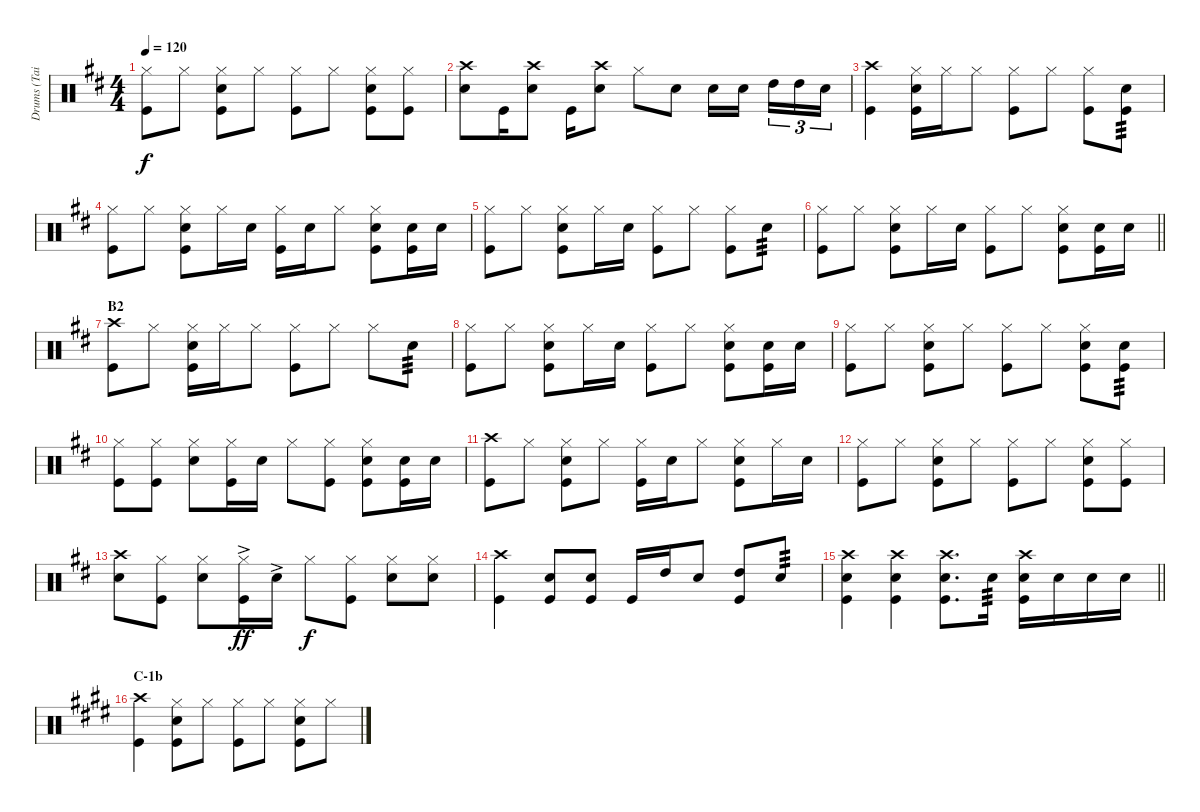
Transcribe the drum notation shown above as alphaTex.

\track ("Drums (Tainaka Ritsu)" "Drums (Tai") {instrument percussion}
\staff {score}
\articulation defaults
\ts (4 4)
\tempo 120
\clef neutral
\ks d
("Hi-Hat (closed)" "Kick (hit)").8{dy f} "Hi-Hat (closed)".8 ("Hi-Hat (closed)" "Snare (hit) 2" "Kick (hit)").8 "Hi-Hat (closed)".8 ("Hi-Hat (closed)" "Kick (hit)").8 "Hi-Hat (closed)".8 ("Hi-Hat (closed)" "Snare (hit) 2" "Kick (hit)").8 ("Hi-Hat (closed)" "Kick (hit)").8 |
("Crash high (hit)" "Snare (hit) 2").8 "Kick (hit)".16 ("Crash high (hit)" "Snare (hit) 2").8 "Kick (hit)".16 ("Crash high (hit)" "Snare (hit) 2").8 "Hi-Hat (closed)".8 "Snare (hit) 2".8 "Snare (hit) 2".16 "Snare (hit) 2".16{beam splitsecondary} "High Tom (hit)".16{tu (3 2)} "High Tom (hit)".16{tu (3 2)} "Snare (hit) 2".16{tu (3 2)} |
("Crash high (hit)" "Kick (hit)").4 ("Hi-Hat (closed)" "Snare (hit) 2" "Kick (hit)").16 "Hi-Hat (closed)".16 "Hi-Hat (closed)".8 ("Hi-Hat (closed)" "Kick (hit)").8 "Hi-Hat (closed)".8 ("Hi-Hat (closed)" "Kick (hit)").8 ("Snare (hit) 2" "Kick (hit)").8{tp 3} |
("Hi-Hat (closed)" "Kick (hit)").8 "Hi-Hat (closed)".8 ("Hi-Hat (closed)" "Snare (hit) 2" "Kick (hit)").8 "Hi-Hat (closed)".16 "Snare (hit) 2".16 ("Hi-Hat (closed)" "Kick (hit)").16 "Snare (hit) 2".16 "Hi-Hat (closed)".8 ("Hi-Hat (closed)" "Snare (hit) 2" "Kick (hit)").8 ("Snare (hit) 2" "Kick (hit)").16 "Snare (hit) 2".16 |
("Hi-Hat (closed)" "Kick (hit)").8 "Hi-Hat (closed)".8 ("Hi-Hat (closed)" "Snare (hit) 2" "Kick (hit)").8 "Hi-Hat (closed)".16 "Snare (hit) 2".16 ("Hi-Hat (closed)" "Kick (hit)").8 "Hi-Hat (closed)".8 ("Hi-Hat (closed)" "Kick (hit)").8 "Snare (hit) 2".8{tp 3} |
\barLineRight lightlight
("Hi-Hat (closed)" "Kick (hit)").8 "Hi-Hat (closed)".8 ("Hi-Hat (closed)" "Snare (hit) 2" "Kick (hit)").8 "Hi-Hat (closed)".16 "Snare (hit) 2".16 ("Hi-Hat (closed)" "Kick (hit)").8 "Hi-Hat (closed)".8 ("Hi-Hat (closed)" "Snare (hit) 2" "Kick (hit)").8 ("Snare (hit) 2" "Kick (hit)").16 "Snare (hit) 2".16 |
\section ("" "B2")
("Crash high (hit)" "Kick (hit)").8 "Hi-Hat (closed)".8 ("Hi-Hat (closed)" "Snare (hit) 2" "Kick (hit)").16 "Hi-Hat (closed)".16 "Hi-Hat (closed)".8 ("Hi-Hat (closed)" "Kick (hit)").8 "Hi-Hat (closed)".8 "Hi-Hat (closed)".8 "Snare (hit) 2".8{tp 3} |
("Hi-Hat (closed)" "Kick (hit)").8 "Hi-Hat (closed)".8 ("Hi-Hat (closed)" "Snare (hit) 2" "Kick (hit)").8 "Hi-Hat (closed)".16 "Snare (hit) 2".16 ("Hi-Hat (closed)" "Kick (hit)").8 "Hi-Hat (closed)".8 ("Hi-Hat (closed)" "Snare (hit) 2" "Kick (hit)").8 ("Snare (hit) 2" "Kick (hit)").16 "Snare (hit) 2".16 |
("Hi-Hat (closed)" "Kick (hit)").8 "Hi-Hat (closed)".8 ("Hi-Hat (closed)" "Snare (hit) 2" "Kick (hit)").8 "Hi-Hat (closed)".8 ("Hi-Hat (closed)" "Kick (hit)").8 "Hi-Hat (closed)".8 ("Hi-Hat (closed)" "Snare (hit) 2" "Kick (hit)").8 ("Snare (hit) 2" "Kick (hit)").8{tp 3} |
("Hi-Hat (closed)" "Kick (hit)").8 ("Hi-Hat (closed)" "Kick (hit)").8 ("Hi-Hat (closed)" "Snare (hit) 2").8 ("Hi-Hat (closed)" "Kick (hit)").16 "Snare (hit) 2".16 "Hi-Hat (closed)".8 ("Hi-Hat (closed)" "Kick (hit)").8 ("Hi-Hat (closed)" "Snare (hit) 2" "Kick (hit)").8 ("Snare (hit) 2" "Kick (hit)").16 "Snare (hit) 2".16 |
("Crash high (hit)" "Kick (hit)").8 "Hi-Hat (closed)".8 ("Hi-Hat (closed)" "Snare (hit) 2" "Kick (hit)").8 "Hi-Hat (closed)".8 ("Hi-Hat (closed)" "Kick (hit)").16 "Snare (hit) 2".16 "Hi-Hat (closed)".8 ("Hi-Hat (closed)" "Snare (hit) 2" "Kick (hit)").8 "Hi-Hat (closed)".16 "Snare (hit) 2".16 |
("Hi-Hat (closed)" "Kick (hit)").8 "Hi-Hat (closed)".8 ("Hi-Hat (closed)" "Snare (hit) 2" "Kick (hit)").8 "Hi-Hat (closed)".8 ("Hi-Hat (closed)" "Kick (hit)").8 "Hi-Hat (closed)".8 ("Hi-Hat (closed)" "Snare (hit) 2" "Kick (hit)").8 ("Hi-Hat (closed)" "Kick (hit)").8 |
("Crash high (hit)" "Snare (hit) 2").8 ("Hi-Hat (closed)" "Kick (hit)").8 ("Hi-Hat (closed)" "Snare (hit) 2").8 ("Hi-Hat (closed)"{ac} "Kick (hit)").16{dy ff} "Snare (hit) 2"{ac}.16 "Hi-Hat (closed)".8{dy f} ("Hi-Hat (closed)" "Kick (hit)").8 ("Hi-Hat (closed)" "Snare (hit) 2").8 ("Hi-Hat (closed)" "Snare (hit) 2").8 |
("Crash high (hit)" "Kick (hit)").4 ("Snare (hit) 2" "Kick (hit)").8 ("Snare (hit) 2" "Kick (hit)").8 "Kick (hit)".16 "High Tom (hit)".16 "Snare (hit) 2".8 ("High Tom (hit)" "Kick (hit)").8 "Snare (hit) 2".8{tp 3} |
\barLineRight lightlight
("Crash high (hit)" "Snare (hit) 2" "Kick (hit)").4 ("Crash high (hit)" "Snare (hit) 2" "Kick (hit)").4 ("Crash high (hit)" "Snare (hit) 2" "Kick (hit)").8{d} "Snare (hit) 2".16{tp 3} ("Crash high (hit)" "Snare (hit) 2" "Kick (hit)").16 "Snare (hit) 2".16 "Snare (hit) 2".16 "Snare (hit) 2".16 |
\section ("" "C-1b")
\ks e
("Crash high (hit)" "Kick (hit)").4 ("Hi-Hat (closed)" "Snare (hit) 2" "Kick (hit)").8 "Hi-Hat (closed)".8 ("Hi-Hat (closed)" "Kick (hit)").8 "Hi-Hat (closed)".8 ("Hi-Hat (closed)" "Snare (hit) 2" "Kick (hit)").8 "Hi-Hat (closed)".8
